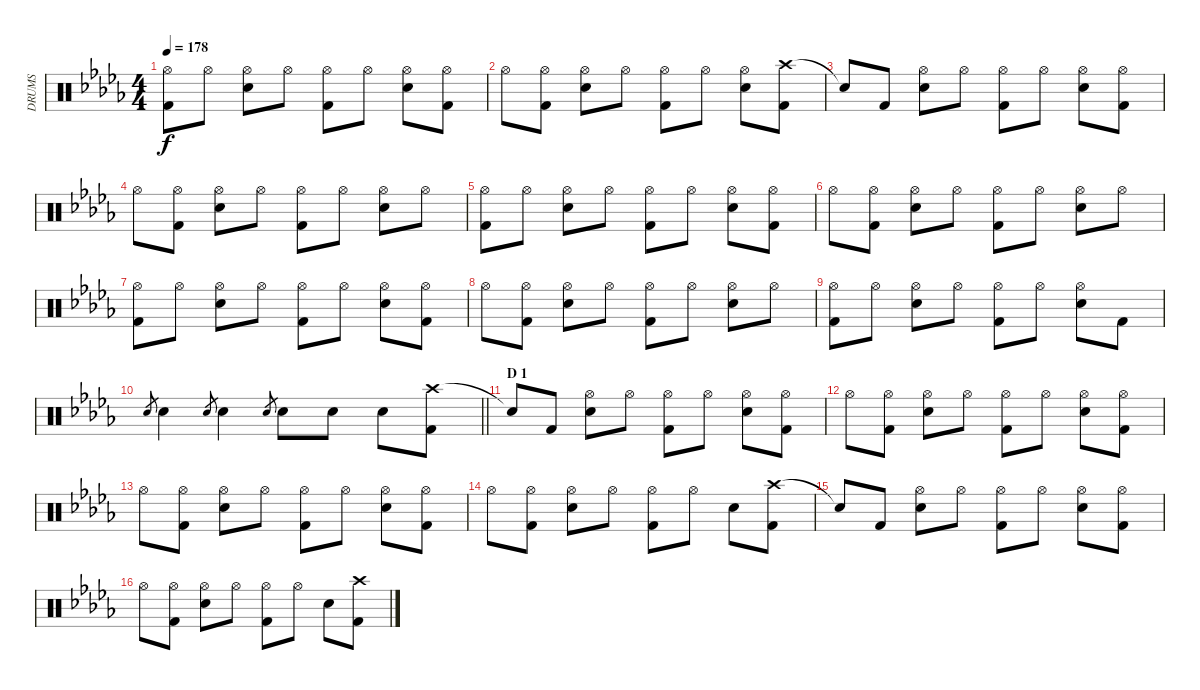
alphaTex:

\track ("DRUMS" "DRUMS") {instrument percussion}
\staff {score}
\articulation defaults
\ts (4 4)
\tempo 178
\clef neutral
\ks db
("Hi-Hat (open)" "Kick (hit) 2").8{dy f} "Hi-Hat (open)".8 ("Hi-Hat (open)" "Snare (hit) 2").8 "Hi-Hat (open)".8 ("Hi-Hat (open)" "Kick (hit) 2").8 "Hi-Hat (open)".8 ("Hi-Hat (open)" "Snare (hit) 2").8 ("Hi-Hat (open)" "Kick (hit) 2").8 |
"Hi-Hat (open)".8 ("Hi-Hat (open)" "Kick (hit) 2").8 ("Hi-Hat (open)" "Snare (hit) 2").8 "Hi-Hat (open)".8 ("Hi-Hat (open)" "Kick (hit) 2").8 "Hi-Hat (open)".8 ("Hi-Hat (open)" "Snare (hit) 2").8 ("Crash high (hit)" "Kick (hit) 2").8 |
"Snare (hit)"{t}.8 "Kick (hit) 2".8 ("Hi-Hat (open)" "Snare (hit) 2").8 "Hi-Hat (open)".8 ("Hi-Hat (open)" "Kick (hit) 2").8 "Hi-Hat (open)".8 ("Hi-Hat (open)" "Snare (hit) 2").8 ("Hi-Hat (open)" "Kick (hit) 2").8 |
"Hi-Hat (open)".8 ("Hi-Hat (open)" "Kick (hit) 2").8 ("Hi-Hat (open)" "Snare (hit) 2").8 "Hi-Hat (open)".8 ("Hi-Hat (open)" "Kick (hit) 2").8 "Hi-Hat (open)".8 ("Hi-Hat (open)" "Snare (hit) 2").8 "Hi-Hat (open)".8 |
("Hi-Hat (open)" "Kick (hit) 2").8 "Hi-Hat (open)".8 ("Hi-Hat (open)" "Snare (hit) 2").8 "Hi-Hat (open)".8 ("Hi-Hat (open)" "Kick (hit) 2").8 "Hi-Hat (open)".8 ("Hi-Hat (open)" "Snare (hit) 2").8 ("Hi-Hat (open)" "Kick (hit) 2").8 |
"Hi-Hat (open)".8 ("Hi-Hat (open)" "Kick (hit) 2").8 ("Hi-Hat (open)" "Snare (hit) 2").8 "Hi-Hat (open)".8 ("Hi-Hat (open)" "Kick (hit) 2").8 "Hi-Hat (open)".8 ("Hi-Hat (open)" "Snare (hit) 2").8 "Hi-Hat (open)".8 |
("Hi-Hat (open)" "Kick (hit) 2").8 "Hi-Hat (open)".8 ("Hi-Hat (open)" "Snare (hit) 2").8 "Hi-Hat (open)".8 ("Hi-Hat (open)" "Kick (hit) 2").8 "Hi-Hat (open)".8 ("Hi-Hat (open)" "Snare (hit) 2").8 ("Hi-Hat (open)" "Kick (hit) 2").8 |
"Hi-Hat (open)".8 ("Hi-Hat (open)" "Kick (hit) 2").8 ("Hi-Hat (open)" "Snare (hit) 2").8 "Hi-Hat (open)".8 ("Hi-Hat (open)" "Kick (hit) 2").8 "Hi-Hat (open)".8 ("Hi-Hat (open)" "Snare (hit) 2").8 "Hi-Hat (open)".8 |
("Hi-Hat (open)" "Kick (hit) 2").8 "Hi-Hat (open)".8 ("Hi-Hat (open)" "Snare (hit) 2").8 "Hi-Hat (open)".8 ("Hi-Hat (open)" "Kick (hit) 2").8 "Hi-Hat (open)".8 ("Hi-Hat (open)" "Snare (hit) 2").8 "Kick (hit) 2".8 |
\barLineRight lightlight "Snare (hit) 2".8{gr} "Snare (hit) 2".4 "Snare (hit) 2".8{gr} "Snare (hit) 2".4 "Snare (hit) 2".8{gr} "Snare (hit) 2".8 "Snare (hit) 2".8 "Snare (hit) 2".8
("Crash high (hit)" "Kick (hit) 2").8 |
\section ("" "D 1")
"Snare (hit)"{t}.8 "Kick (hit) 2".8 ("Hi-Hat (open)" "Snare (hit) 2").8 "Hi-Hat (open)".8 ("Hi-Hat (open)" "Kick (hit) 2").8 "Hi-Hat (open)".8 ("Hi-Hat (open)" "Snare (hit) 2").8 ("Hi-Hat (open)" "Kick (hit) 2").8 |
"Hi-Hat (open)".8 ("Hi-Hat (open)" "Kick (hit) 2").8 ("Hi-Hat (open)" "Snare (hit) 2").8 "Hi-Hat (open)".8 ("Hi-Hat (open)" "Kick (hit) 2").8 "Hi-Hat (open)".8 ("Hi-Hat (open)" "Snare (hit) 2").8 ("Hi-Hat (open)" "Kick (hit) 2").8 |
"Hi-Hat (open)".8 ("Hi-Hat (open)" "Kick (hit) 2").8 ("Hi-Hat (open)" "Snare (hit) 2").8 "Hi-Hat (open)".8 ("Hi-Hat (open)" "Kick (hit) 2").8 "Hi-Hat (open)".8 ("Hi-Hat (open)" "Snare (hit) 2").8 ("Hi-Hat (open)" "Kick (hit) 2").8 |
"Hi-Hat (open)".8 ("Hi-Hat (open)" "Kick (hit) 2").8 ("Hi-Hat (open)" "Snare (hit) 2").8 "Hi-Hat (open)".8 ("Hi-Hat (open)" "Kick (hit) 2").8 "Hi-Hat (open)".8 "Snare (hit) 2".8 ("Crash high (hit)" "Kick (hit) 2").8 |
"Snare (hit)"{t}.8 "Kick (hit) 2".8 ("Hi-Hat (open)" "Snare (hit) 2").8 "Hi-Hat (open)".8 ("Hi-Hat (open)" "Kick (hit) 2").8 "Hi-Hat (open)".8 ("Hi-Hat (open)" "Snare (hit) 2").8 ("Hi-Hat (open)" "Kick (hit) 2").8 |
"Hi-Hat (open)".8 ("Hi-Hat (open)" "Kick (hit) 2").8 ("Hi-Hat (open)" "Snare (hit) 2").8 "Hi-Hat (open)".8 ("Hi-Hat (open)" "Kick (hit) 2").8 "Hi-Hat (open)".8 "Snare (hit) 2".8 ("Crash high (hit)" "Kick (hit) 2").8
